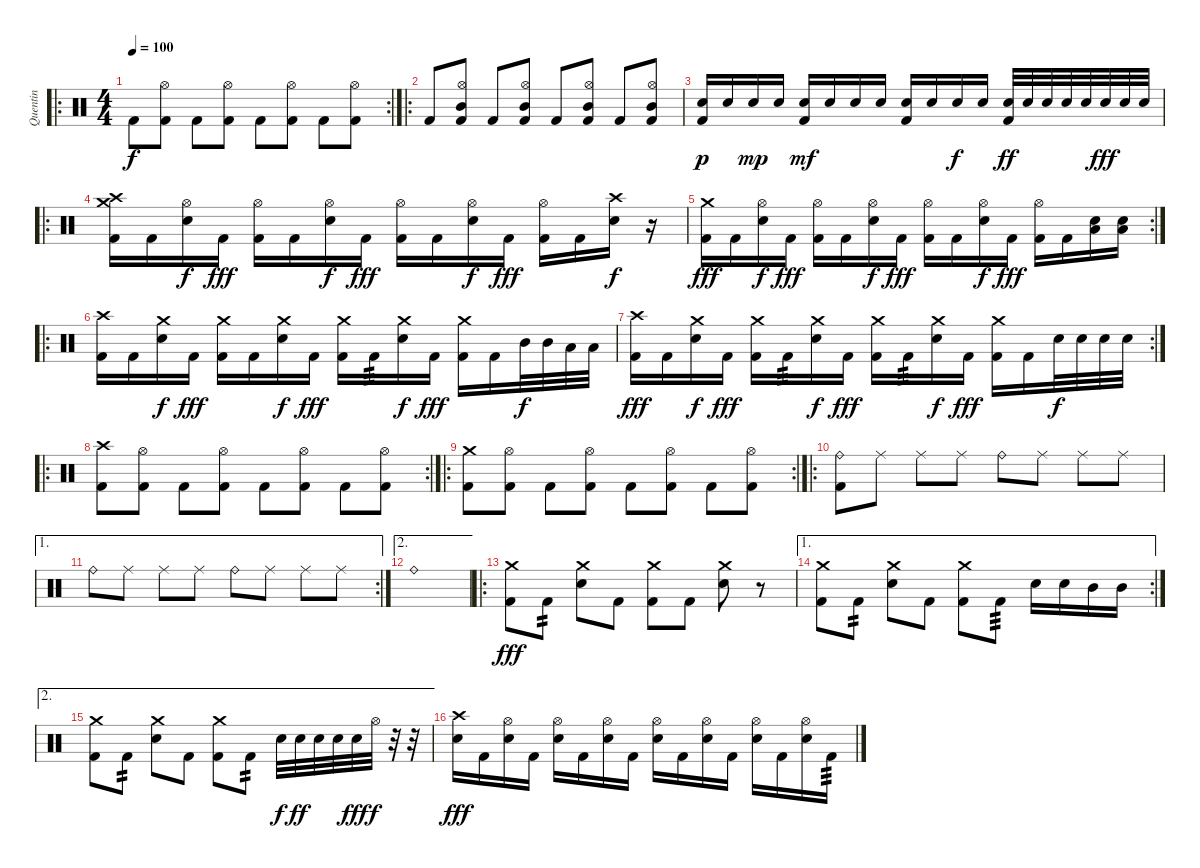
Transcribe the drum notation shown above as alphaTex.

\track ("Quentin" "Quentin") {instrument percussion}
\staff {score}
\articulation defaults
\ro
\rc 2
\ts (4 4)
\tempo 100
\clef neutral
\ks c "Kick (hit) 2".8{dy f}
("Hi-Hat (open)" "Kick (hit) 2").8 "Kick (hit) 2".8 ("Hi-Hat (open)" "Kick (hit) 2").8 "Kick (hit) 2".8 ("Hi-Hat (open)" "Kick (hit) 2").8 "Kick (hit) 2".8 ("Hi-Hat (open)" "Kick (hit) 2").8 |
\ro "Kick (hit) 2".8
("Hi-Hat (open)" "Mid Tom (hit)" "Kick (hit) 2").8 "Kick (hit) 2".8 ("Hi-Hat (open)" "Mid Tom (hit)" "Kick (hit) 2").8 "Kick (hit) 2".8 ("Hi-Hat (open)" "Mid Tom (hit)" "Kick (hit) 2").8 "Kick (hit) 2".8 ("Hi-Hat (open)" "Mid Tom (hit)" "Kick (hit) 2").8 |
("Electric Snare (hit)" "Kick (hit) 2").16{dy p} "Electric Snare (hit)".16 "Electric Snare (hit)".16{dy mp} "Electric Snare (hit)".16 ("Electric Snare (hit)" "Kick (hit) 2").16{dy mf} "Electric Snare (hit)".16 "Electric Snare (hit)".16 "Electric Snare (hit)".16 ("Electric Snare (hit)" "Kick (hit) 2").16 "Electric Snare (hit)".16 "Electric Snare (hit)".16{dy f} "Electric Snare (hit)".16 ("Electric Snare (hit)" "Kick (hit) 2").32{dy ff} "Electric Snare (hit)".32 "Electric Snare (hit)".32 "Electric Snare (hit)".32 "Electric Snare (hit)".32 "Electric Snare (hit)".32{dy fff} "Electric Snare (hit)".32 "Electric Snare (hit)".32 |
\ro
("Crash high (hit)" "Crash medium (hit)" "Kick (hit) 2").16 "Kick (hit) 2".16 ("Hi-Hat (open)" "Electric Snare (hit)").16{dy f} "Kick (hit) 2".16{dy fff} ("Hi-Hat (open)" "Kick (hit) 2").16 "Kick (hit) 2".16 ("Hi-Hat (open)" "Electric Snare (hit)").16{dy f} "Kick (hit) 2".16{dy fff} ("Hi-Hat (open)" "Kick (hit) 2").16 "Kick (hit) 2".16 ("Hi-Hat (open)" "Electric Snare (hit)").16{dy f} "Kick (hit) 2".16{dy fff} ("Hi-Hat (open)" "Kick (hit) 2").16 "Kick (hit) 2".16 ("Crash high (hit)" "Electric Snare (hit)").16{dy f} r.16 |
\rc 2
("Crash medium (hit)" "Kick (hit) 2").16{dy fff} "Kick (hit) 2".16 ("Hi-Hat (open)" "Electric Snare (hit)").16{dy f} "Kick (hit) 2".16{dy fff} ("Hi-Hat (open)" "Kick (hit) 2").16 "Kick (hit) 2".16 ("Hi-Hat (open)" "Electric Snare (hit)").16{dy f} "Kick (hit) 2".16{dy fff} ("Hi-Hat (open)" "Kick (hit) 2").16 "Kick (hit) 2".16 ("Hi-Hat (open)" "Electric Snare (hit)").16{dy f} "Kick (hit) 2".16{dy fff} ("Hi-Hat (open)" "Kick (hit) 2").16 "Kick (hit) 2".16 ("Electric Snare (hit)" "Low Tom (hit)").16 ("Electric Snare (hit)" "Low Tom (hit)").16 |
\ro
("Crash high (hit)" "Kick (hit) 2").16 "Kick (hit) 2".16 ("Crash medium (hit)" "Electric Snare (hit)").16{dy f} "Kick (hit) 2".16{dy fff} ("Crash medium (hit)" "Kick (hit) 2").16 "Kick (hit) 2".16 ("Crash medium (hit)" "Electric Snare (hit)").16{dy f} "Kick (hit) 2".16{dy fff} ("Crash medium (hit)" "Kick (hit) 2").16 "Kick (hit) 2".16{tp 3} ("Crash medium (hit)" "Electric Snare (hit)").16{dy f} "Kick (hit) 2".16{dy fff} ("Crash medium (hit)" "Kick (hit) 2").16 "Kick (hit) 2".16 "Mid Tom (hit)".32{dy f} "Mid Tom (hit)".32 "Low Tom (hit)".32 "Low Tom (hit)".32 |
\rc 2
("Crash high (hit)" "Kick (hit) 2").16{dy fff} "Kick (hit) 2".16 ("Crash medium (hit)" "Electric Snare (hit)").16{dy f} "Kick (hit) 2".16{dy fff} ("Crash medium (hit)" "Kick (hit) 2").16 "Kick (hit) 2".16{tp 3} ("Crash medium (hit)" "Electric Snare (hit)").16{dy f} "Kick (hit) 2".16{dy fff} ("Crash medium (hit)" "Kick (hit) 2").16 "Kick (hit) 2".16{tp 3} ("Crash medium (hit)" "Electric Snare (hit)").16{dy f} "Kick (hit) 2".16{dy fff} ("Crash medium (hit)" "Kick (hit) 2").16 "Kick (hit) 2".16 "Electric Snare (hit)".32{dy f} "Electric Snare (hit)".32 "Electric Snare (hit)".32 "Electric Snare (hit)".32 |
\ro
\rc 2
("Crash high (hit)" "Kick (hit) 2").8 ("Hi-Hat (open)" "Kick (hit) 2").8 "Kick (hit) 2".8 ("Hi-Hat (open)" "Kick (hit) 2").8 "Kick (hit) 2".8 ("Hi-Hat (open)" "Kick (hit) 2").8 "Kick (hit) 2".8 ("Hi-Hat (open)" "Kick (hit) 2").8 |
\ro
\rc 2
("Crash medium (hit)" "Kick (hit) 2").8 ("Hi-Hat (open)" "Kick (hit) 2").8 "Kick (hit) 2".8 ("Hi-Hat (open)" "Kick (hit) 2").8 "Kick (hit) 2".8 ("Hi-Hat (open)" "Kick (hit) 2").8 "Kick (hit) 2".8 ("Hi-Hat (open)" "Kick (hit) 2").8 |
\ro
("Ride (bell)" "Kick (hit) 2").8 "Ride (middle)".8 "Ride (middle)".8 "Ride (middle)".8 "Ride (bell)".8 "Ride (middle)".8 "Ride (middle)".8 "Ride (middle)".8 |
\ae 1
\rc 2 "Ride (bell)".8 "Ride (middle)".8 "Ride (middle)".8 "Ride (middle)".8 "Ride (bell)".8 "Ride (middle)".8 "Ride (middle)".8 "Ride (middle)".8
|
\ae 2 "Ride (bell)".1
|
\ro
("Crash medium (hit)" "Kick (hit) 2").8{dy fff} "Kick (hit) 2".8{tp 2} ("Crash medium (hit)" "Electric Snare (hit)").8 "Kick (hit) 2".8 ("Crash medium (hit)" "Kick (hit) 2").8 "Kick (hit) 2".8 ("Crash medium (hit)" "Electric Snare (hit)").8 r.8 |
\ae 1
\rc 2
("Crash medium (hit)" "Kick (hit) 2").8 "Kick (hit) 2".8{tp 2} ("Crash medium (hit)" "Electric Snare (hit)").8 "Kick (hit) 2".8 ("Crash medium (hit)" "Kick (hit) 2").8 "Kick (hit) 2".8{tp 3} "Electric Snare (hit)".16 "Electric Snare (hit)".16 "Mid Tom (hit)".16 "Mid Tom (hit)".16 |
\ae 2
("Crash medium (hit)" "Kick (hit) 2").8 "Kick (hit) 2".8{tp 2} ("Crash medium (hit)" "Electric Snare (hit)").8 "Kick (hit) 2".8 ("Crash medium (hit)" "Kick (hit) 2").8 "Kick (hit) 2".8{tp 2} "Electric Snare (hit)".32{dy f} "Electric Snare (hit)".32{dy ff} "Electric Snare (hit)".32 "Electric Snare (hit)".32 "Electric Snare (hit)".32{dy fff} "Hi-Hat (open)".32{dy f} r.32 r.32 |
("Crash high (hit)" "Electric Snare (hit)").16{dy fff} "Kick (hit) 2".16 ("Hi-Hat (open)" "Electric Snare (hit)").16 "Kick (hit) 2".16 ("Hi-Hat (open)" "Electric Snare (hit)").16 "Kick (hit) 2".16 ("Hi-Hat (open)" "Electric Snare (hit)").16 "Kick (hit) 2".16 ("Hi-Hat (open)" "Electric Snare (hit)").16 "Kick (hit) 2".16 ("Hi-Hat (open)" "Electric Snare (hit)").16 "Kick (hit) 2".16 ("Hi-Hat (open)" "Electric Snare (hit)").16 "Kick (hit) 2".16 ("Hi-Hat (open)" "Electric Snare (hit)").16 "Kick (hit) 2".16{tp 3}
